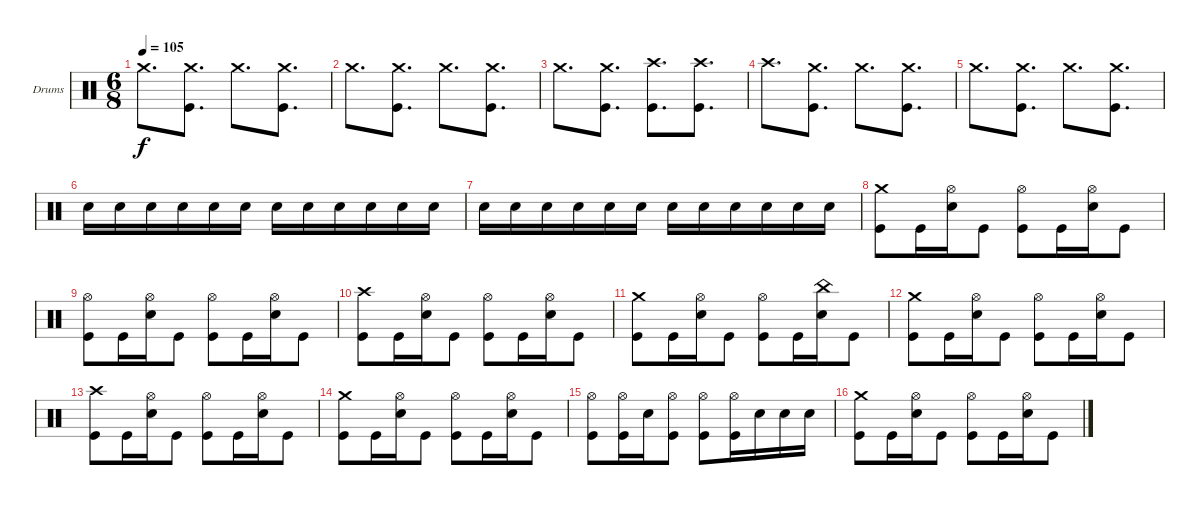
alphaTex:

\defaultSystemsLayout 4
\bracketExtendMode groupsimilarinstruments
\firstSystemTrackNameOrientation horizontal
\otherSystemsTrackNameOrientation horizontal
\track ("Stefan Schwarzmann" "Drums") {instrument percussion}
\staff {score}
\articulation defaults
\ts (6 8)
\tempo 105
\clef neutral
\ks c "Crash medium (hit)".8{d dy f}
("Crash medium (hit)" "Kick (hit)").8{d} "Crash medium (hit)".8{d} ("Crash medium (hit)" "Kick (hit)").8{d} |
"Crash medium (hit)".8{d} ("Crash medium (hit)" "Kick (hit)").8{d} "Crash medium (hit)".8{d} ("Crash medium (hit)" "Kick (hit)").8{d} |
"Crash medium (hit)".8{d} ("Crash medium (hit)" "Kick (hit)").8{d} ("Crash high (hit)" "Kick (hit)").8{d} ("Crash high (hit)" "Kick (hit)").8{d} |
"Crash high (hit)".8{d} ("Crash medium (hit)" "Kick (hit)").8{d} "Crash medium (hit)".8{d} ("Crash medium (hit)" "Kick (hit)").8{d} |
"Crash medium (hit)".8{d} ("Crash medium (hit)" "Kick (hit)").8{d} "Crash medium (hit)".8{d} ("Crash medium (hit)" "Kick (hit)").8{d} |
"Snare (hit) 2".16 "Snare (hit) 2".16 "Snare (hit) 2".16 "Snare (hit) 2".16 "Snare (hit) 2".16 "Snare (hit) 2".16 "Snare (hit) 2".16 "Snare (hit) 2".16 "Snare (hit) 2".16 "Snare (hit) 2".16 "Snare (hit) 2".16 "Snare (hit) 2".16 |
"Snare (hit) 2".16 "Snare (hit) 2".16 "Snare (hit) 2".16 "Snare (hit) 2".16 "Snare (hit) 2".16 "Snare (hit) 2".16 "Snare (hit) 2".16 "Snare (hit) 2".16 "Snare (hit) 2".16 "Snare (hit) 2".16 "Snare (hit) 2".16 "Snare (hit) 2".16 |
("Crash medium (hit)" "Kick (hit)").8 "Kick (hit)".16 ("Hi-Hat (open)" "Snare (hit) 2").16 "Kick (hit)".8 ("Hi-Hat (open)" "Kick (hit)").8 "Kick (hit)".16 ("Hi-Hat (open)" "Snare (hit) 2").16 "Kick (hit)".8 |
("Hi-Hat (open)" "Kick (hit)").8 "Kick (hit)".16 ("Hi-Hat (open)" "Snare (hit) 2").16 "Kick (hit)".8 ("Hi-Hat (open)" "Kick (hit)").8 "Kick (hit)".16 ("Hi-Hat (open)" "Snare (hit) 2").16 "Kick (hit)".8 |
("Crash high (hit)" "Kick (hit)").8 "Kick (hit)".16 ("Hi-Hat (open)" "Snare (hit) 2").16 "Kick (hit)".8 ("Hi-Hat (open)" "Kick (hit)").8 "Kick (hit)".16 ("Hi-Hat (open)" "Snare (hit) 2").16 "Kick (hit)".8 |
("Crash medium (hit)" "Kick (hit)").8 "Kick (hit)".16 ("Hi-Hat (open)" "Snare (hit) 2").16 "Kick (hit)".8 ("Hi-Hat (open)" "Kick (hit)").8 "Kick (hit)".16 ("China (hit)" "Snare (hit) 2").16 "Kick (hit)".8 |
("Crash medium (hit)" "Kick (hit)").8 "Kick (hit)".16 ("Hi-Hat (open)" "Snare (hit) 2").16 "Kick (hit)".8 ("Hi-Hat (open)" "Kick (hit)").8 "Kick (hit)".16 ("Hi-Hat (open)" "Snare (hit) 2").16 "Kick (hit)".8 |
("Crash high (hit)" "Kick (hit)").8 "Kick (hit)".16 ("Hi-Hat (open)" "Snare (hit) 2").16 "Kick (hit)".8 ("Hi-Hat (open)" "Kick (hit)").8 "Kick (hit)".16 ("Hi-Hat (open)" "Snare (hit) 2").16 "Kick (hit)".8 |
("Crash medium (hit)" "Kick (hit)").8 "Kick (hit)".16 ("Hi-Hat (open)" "Snare (hit) 2").16 "Kick (hit)".8 ("Hi-Hat (open)" "Kick (hit)").8 "Kick (hit)".16 ("Hi-Hat (open)" "Snare (hit) 2").16 "Kick (hit)".8 |
("Hi-Hat (open)" "Kick (hit)").8 ("Hi-Hat (open)" "Kick (hit)").16 "Snare (hit) 2".16 ("Hi-Hat (open)" "Kick (hit)").8 ("Hi-Hat (open)" "Kick (hit)").8 ("Hi-Hat (open)" "Kick (hit)").16 "Snare (hit) 2".16 "Snare (hit) 2".16 "Snare (hit) 2".16 |
("Crash medium (hit)" "Kick (hit)").8 "Kick (hit)".16 ("Hi-Hat (open)" "Snare (hit) 2").16 "Kick (hit)".8 ("Hi-Hat (open)" "Kick (hit)").8 "Kick (hit)".16 ("Hi-Hat (open)" "Snare (hit) 2").16 "Kick (hit)".8
